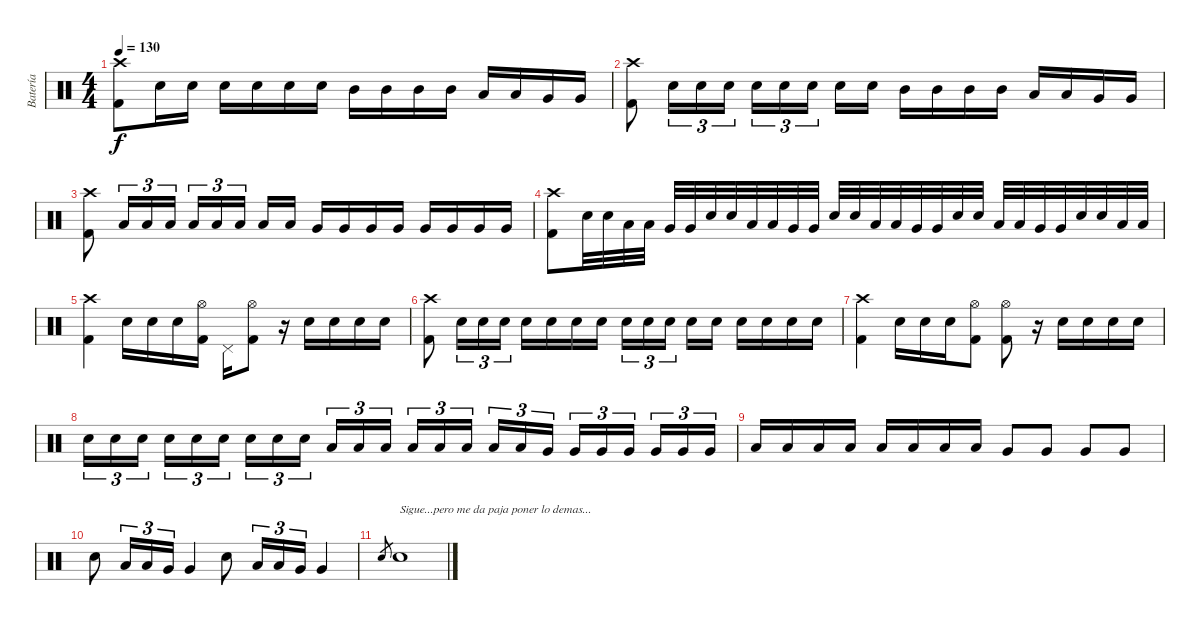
\track ("Batería" "Batería") {instrument percussion}
\staff {score}
\articulation defaults
\ts (4 4)
\tempo 130
\clef neutral
\ks c
("Crash high (hit)" "Kick (hit) 2").8{dy f} "Snare (hit) 2".16 "Snare (hit) 2".16 "Snare (hit) 2".16 "Snare (hit) 2".16 "Snare (hit) 2".16 "Snare (hit) 2".16 "Mid Tom (hit)".16 "Mid Tom (hit)".16 "Mid Tom (hit)".16 "Mid Tom (hit)".16 "Low Tom (hit)".16 "Low Tom (hit)".16 "Very Low Tom (hit)".16 "Very Low Tom (hit)".16 |
("Crash high (hit)" "Kick (hit) 2").8 "Snare (hit) 2".16{tu (3 2)} "Snare (hit) 2".16{tu (3 2)} "Snare (hit) 2".16{tu (3 2)} "Snare (hit) 2".16{tu (3 2)} "Snare (hit) 2".16{tu (3 2)} "Snare (hit) 2".16{tu (3 2)} "Snare (hit) 2".16 "Snare (hit) 2".16 "Mid Tom (hit)".16 "Mid Tom (hit)".16 "Mid Tom (hit)".16 "Mid Tom (hit)".16 "Low Tom (hit)".16 "Low Tom (hit)".16 "Very Low Tom (hit)".16 "Very Low Tom (hit)".16 |
("Crash high (hit)" "Kick (hit) 2").8 "Low Tom (hit)".16{tu (3 2)} "Low Tom (hit)".16{tu (3 2)} "Low Tom (hit)".16{tu (3 2)} "Low Tom (hit)".16{tu (3 2)} "Low Tom (hit)".16{tu (3 2)} "Low Tom (hit)".16{tu (3 2)} "Low Tom (hit)".16 "Low Tom (hit)".16 "Very Low Tom (hit)".16 "Very Low Tom (hit)".16 "Very Low Tom (hit)".16 "Very Low Tom (hit)".16 "Very Low Tom (hit)".16 "Very Low Tom (hit)".16 "Very Low Tom (hit)".16 "Very Low Tom (hit)".16 |
("Crash high (hit)" "Kick (hit) 2").8 "Snare (hit) 2".32 "Snare (hit) 2".32 "Low Tom (hit)".32 "Low Tom (hit)".32 "Very Low Tom (hit)".32 "Very Low Tom (hit)".32 "Snare (hit) 2".32 "Snare (hit) 2".32 "Low Tom (hit)".32 "Low Tom (hit)".32 "Very Low Tom (hit)".32 "Very Low Tom (hit)".32 "Snare (hit) 2".32 "Snare (hit) 2".32 "Low Tom (hit)".32 "Low Tom (hit)".32 "Very Low Tom (hit)".32 "Very Low Tom (hit)".32 "Snare (hit) 2".32 "Snare (hit) 2".32 "Low Tom (hit)".32 "Low Tom (hit)".32 "Very Low Tom (hit)".32 "Very Low Tom (hit)".32 "Snare (hit) 2".32 "Snare (hit) 2".32 "Low Tom (hit)".32 "Low Tom (hit)".32 |
("Crash high (hit)" "Kick (hit) 2").4 "Snare (hit) 2".16 "Snare (hit) 2".16 "Snare (hit) 2".16 ("Hi-Hat (open)" "Kick (hit) 2").16 "Pedal Hi-Hat (hit)".16 ("Hi-Hat (open)" "Kick (hit) 2").8 r.16 "Snare (hit) 2".16 "Snare (hit) 2".16 "Snare (hit) 2".16 "Snare (hit) 2".16 |
("Crash high (hit)" "Kick (hit) 2").8 "Snare (hit) 2".16{tu (3 2)} "Snare (hit) 2".16{tu (3 2)} "Snare (hit) 2".16{tu (3 2)} "Snare (hit) 2".16 "Snare (hit) 2".16 "Snare (hit) 2".16 "Snare (hit) 2".16 "Snare (hit) 2".16{tu (3 2)} "Snare (hit) 2".16{tu (3 2)} "Snare (hit) 2".16{tu (3 2)} "Snare (hit) 2".16 "Snare (hit) 2".16 "Snare (hit) 2".16 "Snare (hit) 2".16 "Snare (hit) 2".16 "Snare (hit) 2".16 |
("Crash high (hit)" "Kick (hit) 2").4 "Snare (hit) 2".16 "Snare (hit) 2".16 "Snare (hit) 2".16 ("Hi-Hat (open)" "Kick (hit) 2").8 ("Hi-Hat (open)" "Kick (hit) 2").8 r.16 "Snare (hit) 2".16 "Snare (hit) 2".16 "Snare (hit) 2".16 "Snare (hit) 2".16 |
"Snare (hit) 2".16{tu (3 2)} "Snare (hit) 2".16{tu (3 2)} "Snare (hit) 2".16{tu (3 2)} "Snare (hit) 2".16{tu (3 2)} "Snare (hit) 2".16{tu (3 2)} "Snare (hit) 2".16{tu (3 2)} "Snare (hit) 2".16{tu (3 2)} "Snare (hit) 2".16{tu (3 2)} "Snare (hit) 2".16{tu (3 2)} "Low Tom (hit)".16{tu (3 2)} "Low Tom (hit)".16{tu (3 2)} "Low Tom (hit)".16{tu (3 2)} "Low Tom (hit)".16{tu (3 2)} "Low Tom (hit)".16{tu (3 2)} "Low Tom (hit)".16{tu (3 2)} "Low Tom (hit)".16{tu (3 2)} "Low Tom (hit)".16{tu (3 2)} "Very Low Tom (hit)".16{tu (3 2)} "Very Low Tom (hit)".16{tu (3 2)} "Very Low Tom (hit)".16{tu (3 2)} "Very Low Tom (hit)".16{tu (3 2)} "Very Low Tom (hit)".16{tu (3 2)} "Very Low Tom (hit)".16{tu (3 2)} "Very Low Tom (hit)".16{tu (3 2)} |
"Low Tom (hit)".16 "Low Tom (hit)".16 "Low Tom (hit)".16 "Low Tom (hit)".16 "Low Tom (hit)".16 "Low Tom (hit)".16 "Low Tom (hit)".16 "Low Tom (hit)".16 "Very Low Tom (hit)".8 "Very Low Tom (hit)".8 "Very Low Tom (hit)".8 "Very Low Tom (hit)".8 |
"Snare (hit) 2".8 "Low Tom (hit)".16{tu (3 2)} "Low Tom (hit)".16{tu (3 2)} "Very Low Tom (hit)".16{tu (3 2)} "Very Low Tom (hit)".4 "Snare (hit) 2".8 "Low Tom (hit)".16{tu (3 2)} "Low Tom (hit)".16{tu (3 2)} "Very Low Tom (hit)".16{tu (3 2)} "Very Low Tom (hit)".4 |
"Snare (hit) 2".8{gr} "Snare (hit) 2".1{txt "Sigue...pero me da paja poner lo demas..."}
